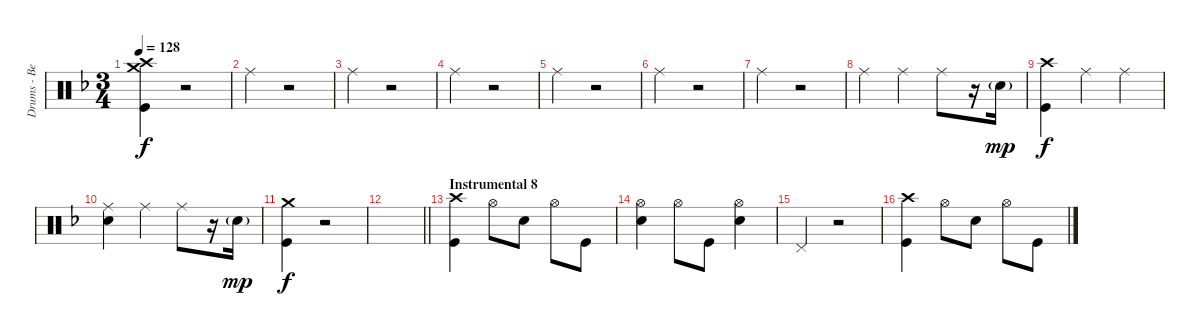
\track ("Drums - Ben Johnston" "Drums - Be") {instrument percussion}
\staff {score}
\articulation defaults
\ts (3 4)
\tempo 128
\clef neutral
\ks dminor
("Crash high (hit)" "Crash medium (hit)" "Kick (hit)").4{dy f} r.2 |
"Ride (middle)".4 r.2 |
"Ride (middle)".4 r.2 |
"Ride (middle)".4 r.2 |
"Ride (middle)".4 r.2 |
"Ride (middle)".4 r.2 |
"Ride (middle)".4 r.2 |
"Ride (middle)".4 "Ride (middle)".4 "Ride (middle)".8 r.16 "Snare (hit) 2"{g}.16{dy mp} |
("Crash high (hit)" "Kick (hit)").4{dy f} "Ride (middle)".4 "Ride (middle)".4 |
("Ride (middle)" "Snare (hit) 2").4 "Ride (middle)".4 "Ride (middle)".8 r.16 "Snare (hit) 2"{g}.16{dy mp} |
("Crash medium (hit)" "Kick (hit)").4{dy f} r.2 |
\barLineRight lightlight
|
\section ("" "Instrumental 8")
("Crash high (hit)" "Kick (hit)").4 "Hi-Hat (open)".8 "Snare (hit) 2".8 "Hi-Hat (open)".8 "Kick (hit)".8 |
("Hi-Hat (open)" "Snare (hit) 2").4 "Hi-Hat (open)".8 "Kick (hit)".8 ("Hi-Hat (open)" "Snare (hit) 2").4 |
"Pedal Hi-Hat (hit)".4 r.2 |
("Crash high (hit)" "Kick (hit)").4 "Hi-Hat (open)".8 "Snare (hit) 2".8 "Hi-Hat (open)".8 "Kick (hit)".8
